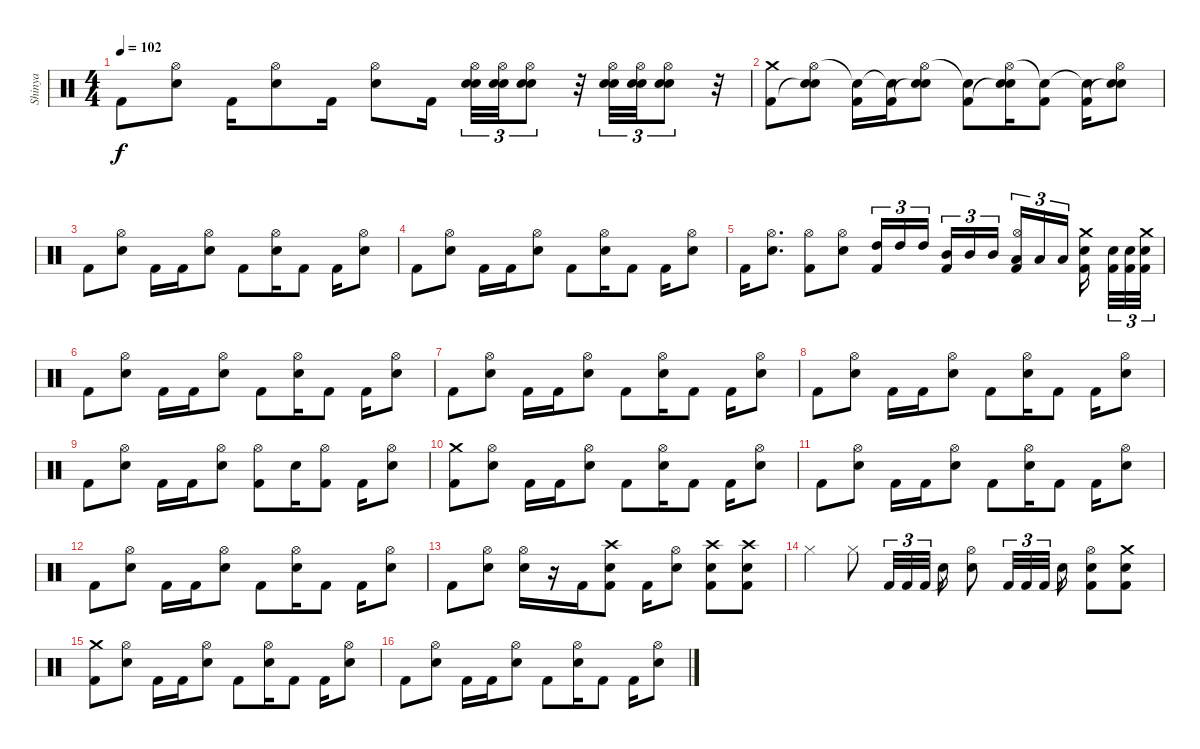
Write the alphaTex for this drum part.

\track ("Shinya" "Shinya") {instrument percussion}
\staff {score}
\articulation defaults
\ts (4 4)
\tempo 102
\clef neutral
\ks c "Kick (hit) 2".8{dy f}
("Hi-Hat (open)" "Electric Snare (hit)").8 "Kick (hit) 2".16 ("Hi-Hat (open)" "Electric Snare (hit)").8 "Kick (hit) 2".16 ("Hi-Hat (open)" "Electric Snare (hit)").8 "Kick (hit) 2".16{beam splitsecondary} ("Hi-Hat (open)" "Electric Snare (hit)" "Snare (hit) 2").32{tu (3 2)} ("Hi-Hat (open)" "Electric Snare (hit)" "Snare (hit) 2").32{tu (3 2)} ("Hi-Hat (open)" "Electric Snare (hit)" "Snare (hit) 2").8{tu (3 2)} r.32 ("Hi-Hat (open)" "Electric Snare (hit)" "Snare (hit) 2").32{tu (3 2)} ("Hi-Hat (open)" "Electric Snare (hit)" "Snare (hit) 2").32{tu (3 2)} ("Hi-Hat (open)" "Electric Snare (hit)" "Snare (hit) 2").8{tu (3 2)} r.32 |
("Crash medium (hit)" "Kick (hit) 2").8 ("Hi-Hat (open)" "Snare (hit)"{t} "Electric Snare (hit)").8 ("Snare (hit)"{t} "Kick (hit) 2").16 ("Snare (hit)"{t} "Kick (hit) 2").16 ("Hi-Hat (open)" "Snare (hit)"{t} "Electric Snare (hit)").8 ("Snare (hit)"{t} "Kick (hit) 2").8 ("Hi-Hat (open)" "Snare (hit)"{t} "Electric Snare (hit)").16 ("Snare (hit)"{t} "Kick (hit) 2").8 ("Snare (hit)"{t} "Kick (hit) 2").16 ("Hi-Hat (open)" "Snare (hit)"{t} "Electric Snare (hit)").8 |
"Kick (hit) 2".8 ("Hi-Hat (open)" "Electric Snare (hit)").8 "Kick (hit) 2".16 "Kick (hit) 2".16 ("Hi-Hat (open)" "Electric Snare (hit)").8 "Kick (hit) 2".8 ("Hi-Hat (open)" "Electric Snare (hit)").16 "Kick (hit) 2".8 "Kick (hit) 2".16 ("Hi-Hat (open)" "Electric Snare (hit)").8 |
"Kick (hit) 2".8 ("Hi-Hat (open)" "Electric Snare (hit)").8 "Kick (hit) 2".16 "Kick (hit) 2".16 ("Hi-Hat (open)" "Electric Snare (hit)").8 "Kick (hit) 2".8 ("Hi-Hat (open)" "Electric Snare (hit)").16 "Kick (hit) 2".8 "Kick (hit) 2".16 ("Hi-Hat (open)" "Electric Snare (hit)").8 |
"Kick (hit) 2".16 ("Hi-Hat (open)" "Electric Snare (hit)").8{d} ("Hi-Hat (open)" "Kick (hit) 2").8 ("Hi-Hat (open)" "Electric Snare (hit)").8 ("High Tom (hit)" "Kick (hit) 2").16{tu (3 2)} "High Tom (hit)".16{tu (3 2)} "High Tom (hit)".16{tu (3 2) beam splitsecondary} ("Mid Tom (hit)" "Kick (hit) 2").16{tu (3 2)} "Mid Tom (hit)".16{tu (3 2)} "Mid Tom (hit)".16{tu (3 2)} ("Hi-Hat (open)" "Low Tom (hit)" "Kick (hit) 2").16{tu (3 2)} "Low Tom (hit)".16{tu (3 2)} "Low Tom (hit)".16{tu (3 2) beam splitsecondary} ("Crash medium (hit)" "Electric Snare (hit)" "Kick (hit) 2").16{beam splitsecondary} ("Electric Snare (hit)" "Kick (hit) 2").32{tu (3 2)} ("Electric Snare (hit)" "Kick (hit) 2").32{tu (3 2)} ("Crash medium (hit)" "Electric Snare (hit)" "Kick (hit) 2").32{tu (3 2)} |
"Kick (hit) 2".8 ("Hi-Hat (open)" "Electric Snare (hit)").8 "Kick (hit) 2".16 "Kick (hit) 2".16 ("Hi-Hat (open)" "Electric Snare (hit)").8 "Kick (hit) 2".8 ("Hi-Hat (open)" "Electric Snare (hit)").16 "Kick (hit) 2".8 "Kick (hit) 2".16 ("Hi-Hat (open)" "Electric Snare (hit)").8 |
"Kick (hit) 2".8 ("Hi-Hat (open)" "Electric Snare (hit)").8 "Kick (hit) 2".16 "Kick (hit) 2".16 ("Hi-Hat (open)" "Electric Snare (hit)").8 "Kick (hit) 2".8 ("Hi-Hat (open)" "Electric Snare (hit)").16 "Kick (hit) 2".8 "Kick (hit) 2".16 ("Hi-Hat (open)" "Electric Snare (hit)").8 |
"Kick (hit) 2".8 ("Hi-Hat (open)" "Electric Snare (hit)").8 "Kick (hit) 2".16 "Kick (hit) 2".16 ("Hi-Hat (open)" "Electric Snare (hit)").8 "Kick (hit) 2".8 ("Hi-Hat (open)" "Electric Snare (hit)").16 "Kick (hit) 2".8 "Kick (hit) 2".16 ("Hi-Hat (open)" "Electric Snare (hit)").8 |
"Kick (hit) 2".8 ("Hi-Hat (open)" "Electric Snare (hit)").8 "Kick (hit) 2".16 "Kick (hit) 2".16 ("Hi-Hat (open)" "Electric Snare (hit)").8 ("Hi-Hat (open)" "Kick (hit) 2").8 "Electric Snare (hit)".16 ("Hi-Hat (open)" "Kick (hit) 2").8 "Kick (hit) 2".16 ("Hi-Hat (open)" "Electric Snare (hit)").8 |
("Crash medium (hit)" "Kick (hit) 2").8 ("Hi-Hat (open)" "Electric Snare (hit)").8 "Kick (hit) 2".16 "Kick (hit) 2".16 ("Hi-Hat (open)" "Electric Snare (hit)").8 "Kick (hit) 2".8 ("Hi-Hat (open)" "Electric Snare (hit)").16 "Kick (hit) 2".8 "Kick (hit) 2".16 ("Hi-Hat (open)" "Electric Snare (hit)").8 |
"Kick (hit) 2".8 ("Hi-Hat (open)" "Electric Snare (hit)").8 "Kick (hit) 2".16 "Kick (hit) 2".16 ("Hi-Hat (open)" "Electric Snare (hit)").8 "Kick (hit) 2".8 ("Hi-Hat (open)" "Electric Snare (hit)").16 "Kick (hit) 2".8 "Kick (hit) 2".16 ("Hi-Hat (open)" "Electric Snare (hit)").8 |
"Kick (hit) 2".8 ("Hi-Hat (open)" "Electric Snare (hit)").8 "Kick (hit) 2".16 "Kick (hit) 2".16 ("Hi-Hat (open)" "Electric Snare (hit)").8 "Kick (hit) 2".8 ("Hi-Hat (open)" "Electric Snare (hit)").16 "Kick (hit) 2".8 "Kick (hit) 2".16 ("Hi-Hat (open)" "Electric Snare (hit)").8 |
"Kick (hit) 2".8 ("Hi-Hat (open)" "Electric Snare (hit)").8 ("Hi-Hat (open)" "Electric Snare (hit)").16 r.16 "Kick (hit) 2".16 ("Crash high (hit)" "Electric Snare (hit)" "Kick (hit) 2").8 "Kick (hit) 2".16 ("Hi-Hat (open)" "Electric Snare (hit)").8 ("Crash high (hit)" "Electric Snare (hit)" "Kick (hit) 2").8 ("Crash high (hit)" "Electric Snare (hit)" "Kick (hit) 2").8 |
"Hi-Hat (closed)".4 "Hi-Hat (closed)".8 "Kick (hit) 2".32{tu (3 2)} "Kick (hit) 2".32{tu (3 2)} "Kick (hit) 2".32{tu (3 2) beam splitsecondary} "Snare (hit)"{t}.16 ("Hi-Hat (open)" "Electric Snare (hit)").8 "Kick (hit) 2".32{tu (3 2)} "Kick (hit) 2".32{tu (3 2)} "Kick (hit) 2".32{tu (3 2) beam splitsecondary} "Snare (hit)"{t}.16 ("Hi-Hat (open)" "Electric Snare (hit)" "Kick (hit) 2").8 ("Crash medium (hit)" "Electric Snare (hit)" "Kick (hit) 2").8 |
("Crash medium (hit)" "Kick (hit) 2").8 ("Hi-Hat (open)" "Electric Snare (hit)").8 "Kick (hit) 2".16 "Kick (hit) 2".16 ("Hi-Hat (open)" "Electric Snare (hit)").8 "Kick (hit) 2".8 ("Hi-Hat (open)" "Electric Snare (hit)").16 "Kick (hit) 2".8 "Kick (hit) 2".16 ("Hi-Hat (open)" "Electric Snare (hit)").8 |
"Kick (hit) 2".8 ("Hi-Hat (open)" "Electric Snare (hit)").8 "Kick (hit) 2".16 "Kick (hit) 2".16 ("Hi-Hat (open)" "Electric Snare (hit)").8 "Kick (hit) 2".8 ("Hi-Hat (open)" "Electric Snare (hit)").16 "Kick (hit) 2".8 "Kick (hit) 2".16 ("Hi-Hat (open)" "Electric Snare (hit)").8
